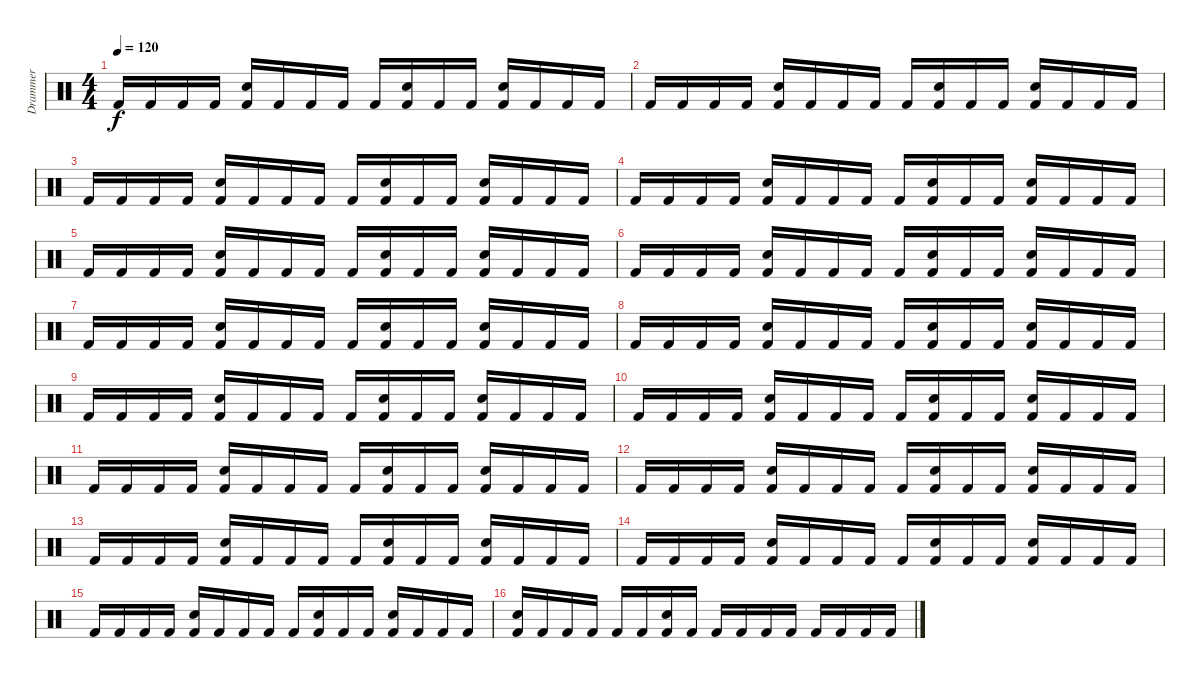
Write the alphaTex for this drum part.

\track ("Drammer" "Drammer") {instrument percussion}
\staff {score}
\articulation defaults
\ts (4 4)
\tempo 120
\clef neutral
\ks c "Kick (hit) 2".16{dy f} "Kick (hit) 2".16 "Kick (hit) 2".16 "Kick (hit) 2".16
("Snare (hit) 2" "Kick (hit) 2").16 "Kick (hit) 2".16 "Kick (hit) 2".16 "Kick (hit) 2".16 "Kick (hit) 2".16 ("Snare (hit) 2" "Kick (hit) 2").16 "Kick (hit) 2".16 "Kick (hit) 2".16 ("Snare (hit) 2" "Kick (hit) 2").16 "Kick (hit) 2".16 "Kick (hit) 2".16 "Kick (hit) 2".16 |
"Kick (hit) 2".16 "Kick (hit) 2".16 "Kick (hit) 2".16 "Kick (hit) 2".16 ("Snare (hit) 2" "Kick (hit) 2").16 "Kick (hit) 2".16 "Kick (hit) 2".16 "Kick (hit) 2".16 "Kick (hit) 2".16 ("Snare (hit) 2" "Kick (hit) 2").16 "Kick (hit) 2".16 "Kick (hit) 2".16 ("Snare (hit) 2" "Kick (hit) 2").16 "Kick (hit) 2".16 "Kick (hit) 2".16 "Kick (hit) 2".16 |
"Kick (hit) 2".16 "Kick (hit) 2".16 "Kick (hit) 2".16 "Kick (hit) 2".16 ("Snare (hit) 2" "Kick (hit) 2").16 "Kick (hit) 2".16 "Kick (hit) 2".16 "Kick (hit) 2".16 "Kick (hit) 2".16 ("Snare (hit) 2" "Kick (hit) 2").16 "Kick (hit) 2".16 "Kick (hit) 2".16 ("Snare (hit) 2" "Kick (hit) 2").16 "Kick (hit) 2".16 "Kick (hit) 2".16 "Kick (hit) 2".16 |
"Kick (hit) 2".16 "Kick (hit) 2".16 "Kick (hit) 2".16 "Kick (hit) 2".16 ("Snare (hit) 2" "Kick (hit) 2").16 "Kick (hit) 2".16 "Kick (hit) 2".16 "Kick (hit) 2".16 "Kick (hit) 2".16 ("Snare (hit) 2" "Kick (hit) 2").16 "Kick (hit) 2".16 "Kick (hit) 2".16 ("Snare (hit) 2" "Kick (hit) 2").16 "Kick (hit) 2".16 "Kick (hit) 2".16 "Kick (hit) 2".16 |
"Kick (hit) 2".16 "Kick (hit) 2".16 "Kick (hit) 2".16 "Kick (hit) 2".16 ("Snare (hit) 2" "Kick (hit) 2").16 "Kick (hit) 2".16 "Kick (hit) 2".16 "Kick (hit) 2".16 "Kick (hit) 2".16 ("Snare (hit) 2" "Kick (hit) 2").16 "Kick (hit) 2".16 "Kick (hit) 2".16 ("Snare (hit) 2" "Kick (hit) 2").16 "Kick (hit) 2".16 "Kick (hit) 2".16 "Kick (hit) 2".16 |
"Kick (hit) 2".16 "Kick (hit) 2".16 "Kick (hit) 2".16 "Kick (hit) 2".16 ("Snare (hit) 2" "Kick (hit) 2").16 "Kick (hit) 2".16 "Kick (hit) 2".16 "Kick (hit) 2".16 "Kick (hit) 2".16 ("Snare (hit) 2" "Kick (hit) 2").16 "Kick (hit) 2".16 "Kick (hit) 2".16 ("Snare (hit) 2" "Kick (hit) 2").16 "Kick (hit) 2".16 "Kick (hit) 2".16 "Kick (hit) 2".16 |
"Kick (hit) 2".16 "Kick (hit) 2".16 "Kick (hit) 2".16 "Kick (hit) 2".16 ("Snare (hit) 2" "Kick (hit) 2").16 "Kick (hit) 2".16 "Kick (hit) 2".16 "Kick (hit) 2".16 "Kick (hit) 2".16 ("Snare (hit) 2" "Kick (hit) 2").16 "Kick (hit) 2".16 "Kick (hit) 2".16 ("Snare (hit) 2" "Kick (hit) 2").16 "Kick (hit) 2".16 "Kick (hit) 2".16 "Kick (hit) 2".16 |
"Kick (hit) 2".16 "Kick (hit) 2".16 "Kick (hit) 2".16 "Kick (hit) 2".16 ("Snare (hit) 2" "Kick (hit) 2").16 "Kick (hit) 2".16 "Kick (hit) 2".16 "Kick (hit) 2".16 "Kick (hit) 2".16 ("Snare (hit) 2" "Kick (hit) 2").16 "Kick (hit) 2".16 "Kick (hit) 2".16 ("Snare (hit) 2" "Kick (hit) 2").16 "Kick (hit) 2".16 "Kick (hit) 2".16 "Kick (hit) 2".16 |
"Kick (hit) 2".16 "Kick (hit) 2".16 "Kick (hit) 2".16 "Kick (hit) 2".16 ("Snare (hit) 2" "Kick (hit) 2").16 "Kick (hit) 2".16 "Kick (hit) 2".16 "Kick (hit) 2".16 "Kick (hit) 2".16 ("Snare (hit) 2" "Kick (hit) 2").16 "Kick (hit) 2".16 "Kick (hit) 2".16 ("Snare (hit) 2" "Kick (hit) 2").16 "Kick (hit) 2".16 "Kick (hit) 2".16 "Kick (hit) 2".16 |
"Kick (hit) 2".16 "Kick (hit) 2".16 "Kick (hit) 2".16 "Kick (hit) 2".16 ("Snare (hit) 2" "Kick (hit) 2").16 "Kick (hit) 2".16 "Kick (hit) 2".16 "Kick (hit) 2".16 "Kick (hit) 2".16 ("Snare (hit) 2" "Kick (hit) 2").16 "Kick (hit) 2".16 "Kick (hit) 2".16 ("Snare (hit) 2" "Kick (hit) 2").16 "Kick (hit) 2".16 "Kick (hit) 2".16 "Kick (hit) 2".16 |
"Kick (hit) 2".16 "Kick (hit) 2".16 "Kick (hit) 2".16 "Kick (hit) 2".16 ("Snare (hit) 2" "Kick (hit) 2").16 "Kick (hit) 2".16 "Kick (hit) 2".16 "Kick (hit) 2".16 "Kick (hit) 2".16 ("Snare (hit) 2" "Kick (hit) 2").16 "Kick (hit) 2".16 "Kick (hit) 2".16 ("Snare (hit) 2" "Kick (hit) 2").16 "Kick (hit) 2".16 "Kick (hit) 2".16 "Kick (hit) 2".16 |
"Kick (hit) 2".16 "Kick (hit) 2".16 "Kick (hit) 2".16 "Kick (hit) 2".16 ("Snare (hit) 2" "Kick (hit) 2").16 "Kick (hit) 2".16 "Kick (hit) 2".16 "Kick (hit) 2".16 "Kick (hit) 2".16 ("Snare (hit) 2" "Kick (hit) 2").16 "Kick (hit) 2".16 "Kick (hit) 2".16 ("Snare (hit) 2" "Kick (hit) 2").16 "Kick (hit) 2".16 "Kick (hit) 2".16 "Kick (hit) 2".16 |
"Kick (hit) 2".16 "Kick (hit) 2".16 "Kick (hit) 2".16 "Kick (hit) 2".16 ("Snare (hit) 2" "Kick (hit) 2").16 "Kick (hit) 2".16 "Kick (hit) 2".16 "Kick (hit) 2".16 "Kick (hit) 2".16 ("Snare (hit) 2" "Kick (hit) 2").16 "Kick (hit) 2".16 "Kick (hit) 2".16 ("Snare (hit) 2" "Kick (hit) 2").16 "Kick (hit) 2".16 "Kick (hit) 2".16 "Kick (hit) 2".16 |
"Kick (hit) 2".16 "Kick (hit) 2".16 "Kick (hit) 2".16 "Kick (hit) 2".16 ("Snare (hit) 2" "Kick (hit) 2").16 "Kick (hit) 2".16 "Kick (hit) 2".16 "Kick (hit) 2".16 "Kick (hit) 2".16 ("Snare (hit) 2" "Kick (hit) 2").16 "Kick (hit) 2".16 "Kick (hit) 2".16 ("Snare (hit) 2" "Kick (hit) 2").16 "Kick (hit) 2".16 "Kick (hit) 2".16 "Kick (hit) 2".16 |
"Kick (hit) 2".16 "Kick (hit) 2".16 "Kick (hit) 2".16 "Kick (hit) 2".16 ("Snare (hit) 2" "Kick (hit) 2").16 "Kick (hit) 2".16 "Kick (hit) 2".16 "Kick (hit) 2".16 "Kick (hit) 2".16 ("Snare (hit) 2" "Kick (hit) 2").16 "Kick (hit) 2".16 "Kick (hit) 2".16 ("Snare (hit) 2" "Kick (hit) 2").16 "Kick (hit) 2".16 "Kick (hit) 2".16 "Kick (hit) 2".16 |
("Snare (hit) 2" "Kick (hit) 2").16 "Kick (hit) 2".16 "Kick (hit) 2".16 "Kick (hit) 2".16 "Kick (hit) 2".16 "Kick (hit) 2".16 ("Snare (hit) 2" "Kick (hit) 2").16 "Kick (hit) 2".16 "Kick (hit) 2".16 "Kick (hit) 2".16 "Kick (hit) 2".16 "Kick (hit) 2".16 "Kick (hit) 2".16 "Kick (hit) 2".16 "Kick (hit) 2".16 "Kick (hit) 2".16
